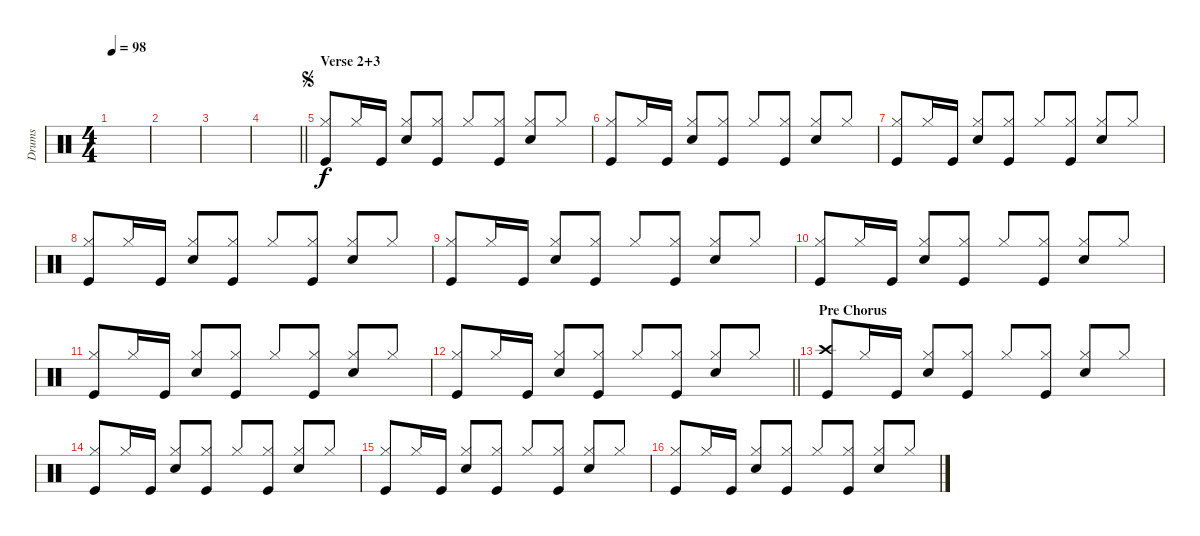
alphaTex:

\track ("Drums" "Drums") {instrument percussion}
\staff {score}
\articulation defaults
\ts (4 4)
\tempo 98
\clef neutral
\ks c
|
|
|
\barLineRight lightlight
|
\section ("" "Verse 2+3")
\jump segno
("Hi-Hat (closed)" "Kick (hit)").8{beam Up} "Hi-Hat (closed)".16{beam Up} "Kick (hit)".16{beam Up} ("Hi-Hat (closed)" "Snare (hit) 2").8{beam Up} ("Hi-Hat (closed)" "Kick (hit)").8{beam Up} "Hi-Hat (closed)".8{beam Up} ("Hi-Hat (closed)" "Kick (hit)").8{beam Up} ("Hi-Hat (closed)" "Snare (hit) 2").8{beam Up} "Hi-Hat (closed)".8{beam Up} |
("Hi-Hat (closed)" "Kick (hit)").8{beam Up} "Hi-Hat (closed)".16{beam Up} "Kick (hit)".16{beam Up} ("Hi-Hat (closed)" "Snare (hit) 2").8{beam Up} ("Hi-Hat (closed)" "Kick (hit)").8{beam Up} "Hi-Hat (closed)".8{beam Up} ("Hi-Hat (closed)" "Kick (hit)").8{beam Up} ("Hi-Hat (closed)" "Snare (hit) 2").8{beam Up} "Hi-Hat (closed)".8{beam Up} |
("Hi-Hat (closed)" "Kick (hit)").8{beam Up} "Hi-Hat (closed)".16{beam Up} "Kick (hit)".16{beam Up} ("Hi-Hat (closed)" "Snare (hit) 2").8{beam Up} ("Hi-Hat (closed)" "Kick (hit)").8{beam Up} "Hi-Hat (closed)".8{beam Up} ("Hi-Hat (closed)" "Kick (hit)").8{beam Up} ("Hi-Hat (closed)" "Snare (hit) 2").8{beam Up} "Hi-Hat (closed)".8{beam Up} |
("Hi-Hat (closed)" "Kick (hit)").8{beam Up} "Hi-Hat (closed)".16{beam Up} "Kick (hit)".16{beam Up} ("Hi-Hat (closed)" "Snare (hit) 2").8{beam Up} ("Hi-Hat (closed)" "Kick (hit)").8{beam Up} "Hi-Hat (closed)".8{beam Up} ("Hi-Hat (closed)" "Kick (hit)").8{beam Up} ("Hi-Hat (closed)" "Snare (hit) 2").8{beam Up} "Hi-Hat (closed)".8{beam Up} |
("Hi-Hat (closed)" "Kick (hit)").8{beam Up} "Hi-Hat (closed)".16{beam Up} "Kick (hit)".16{beam Up} ("Hi-Hat (closed)" "Snare (hit) 2").8{beam Up} ("Hi-Hat (closed)" "Kick (hit)").8{beam Up} "Hi-Hat (closed)".8{beam Up} ("Hi-Hat (closed)" "Kick (hit)").8{beam Up} ("Hi-Hat (closed)" "Snare (hit) 2").8{beam Up} "Hi-Hat (closed)".8{beam Up} |
("Hi-Hat (closed)" "Kick (hit)").8{beam Up} "Hi-Hat (closed)".16{beam Up} "Kick (hit)".16{beam Up} ("Hi-Hat (closed)" "Snare (hit) 2").8{beam Up} ("Hi-Hat (closed)" "Kick (hit)").8{beam Up} "Hi-Hat (closed)".8{beam Up} ("Hi-Hat (closed)" "Kick (hit)").8{beam Up} ("Hi-Hat (closed)" "Snare (hit) 2").8{beam Up} "Hi-Hat (closed)".8{beam Up} |
("Hi-Hat (closed)" "Kick (hit)").8{beam Up} "Hi-Hat (closed)".16{beam Up} "Kick (hit)".16{beam Up} ("Hi-Hat (closed)" "Snare (hit) 2").8{beam Up} ("Hi-Hat (closed)" "Kick (hit)").8{beam Up} "Hi-Hat (closed)".8{beam Up} ("Hi-Hat (closed)" "Kick (hit)").8{beam Up} ("Hi-Hat (closed)" "Snare (hit) 2").8{beam Up} "Hi-Hat (closed)".8{beam Up} |
\barLineRight lightlight
("Hi-Hat (closed)" "Kick (hit)").8{beam Up} "Hi-Hat (closed)".16{beam Up} "Kick (hit)".16{beam Up} ("Hi-Hat (closed)" "Snare (hit) 2").8{beam Up} ("Hi-Hat (closed)" "Kick (hit)").8{beam Up} "Hi-Hat (closed)".8{beam Up} ("Hi-Hat (closed)" "Kick (hit)").8{beam Up} ("Hi-Hat (closed)" "Snare (hit) 2").8{beam Up} "Hi-Hat (closed)".8{beam Up} |
\section ("" "Pre Chorus")
("Crash high (hit)" "Kick (hit)").8{beam Up} "Hi-Hat (closed)".16{beam Up} "Kick (hit)".16{beam Up} ("Hi-Hat (closed)" "Snare (hit) 2").8{beam Up} ("Hi-Hat (closed)" "Kick (hit)").8{beam Up} "Hi-Hat (closed)".8{beam Up} ("Hi-Hat (closed)" "Kick (hit)").8{beam Up} ("Hi-Hat (closed)" "Snare (hit) 2").8{beam Up} "Hi-Hat (closed)".8{beam Up} |
("Hi-Hat (closed)" "Kick (hit)").8{beam Up} "Hi-Hat (closed)".16{beam Up} "Kick (hit)".16{beam Up} ("Hi-Hat (closed)" "Snare (hit) 2").8{beam Up} ("Hi-Hat (closed)" "Kick (hit)").8{beam Up} "Hi-Hat (closed)".8{beam Up} ("Hi-Hat (closed)" "Kick (hit)").8{beam Up} ("Hi-Hat (closed)" "Snare (hit) 2").8{beam Up} "Hi-Hat (closed)".8{beam Up} |
("Hi-Hat (closed)" "Kick (hit)").8{beam Up} "Hi-Hat (closed)".16{beam Up} "Kick (hit)".16{beam Up} ("Hi-Hat (closed)" "Snare (hit) 2").8{beam Up} ("Hi-Hat (closed)" "Kick (hit)").8{beam Up} "Hi-Hat (closed)".8{beam Up} ("Hi-Hat (closed)" "Kick (hit)").8{beam Up} ("Hi-Hat (closed)" "Snare (hit) 2").8{beam Up} "Hi-Hat (closed)".8{beam Up} |
("Hi-Hat (closed)" "Kick (hit)").8{beam Up} "Hi-Hat (closed)".16{beam Up} "Kick (hit)".16{beam Up} ("Hi-Hat (closed)" "Snare (hit) 2").8{beam Up} ("Hi-Hat (closed)" "Kick (hit)").8{beam Up} "Hi-Hat (closed)".8{beam Up} ("Hi-Hat (closed)" "Kick (hit)").8{beam Up} ("Hi-Hat (closed)" "Snare (hit) 2").8{beam Up} "Hi-Hat (closed)".8{beam Up}
